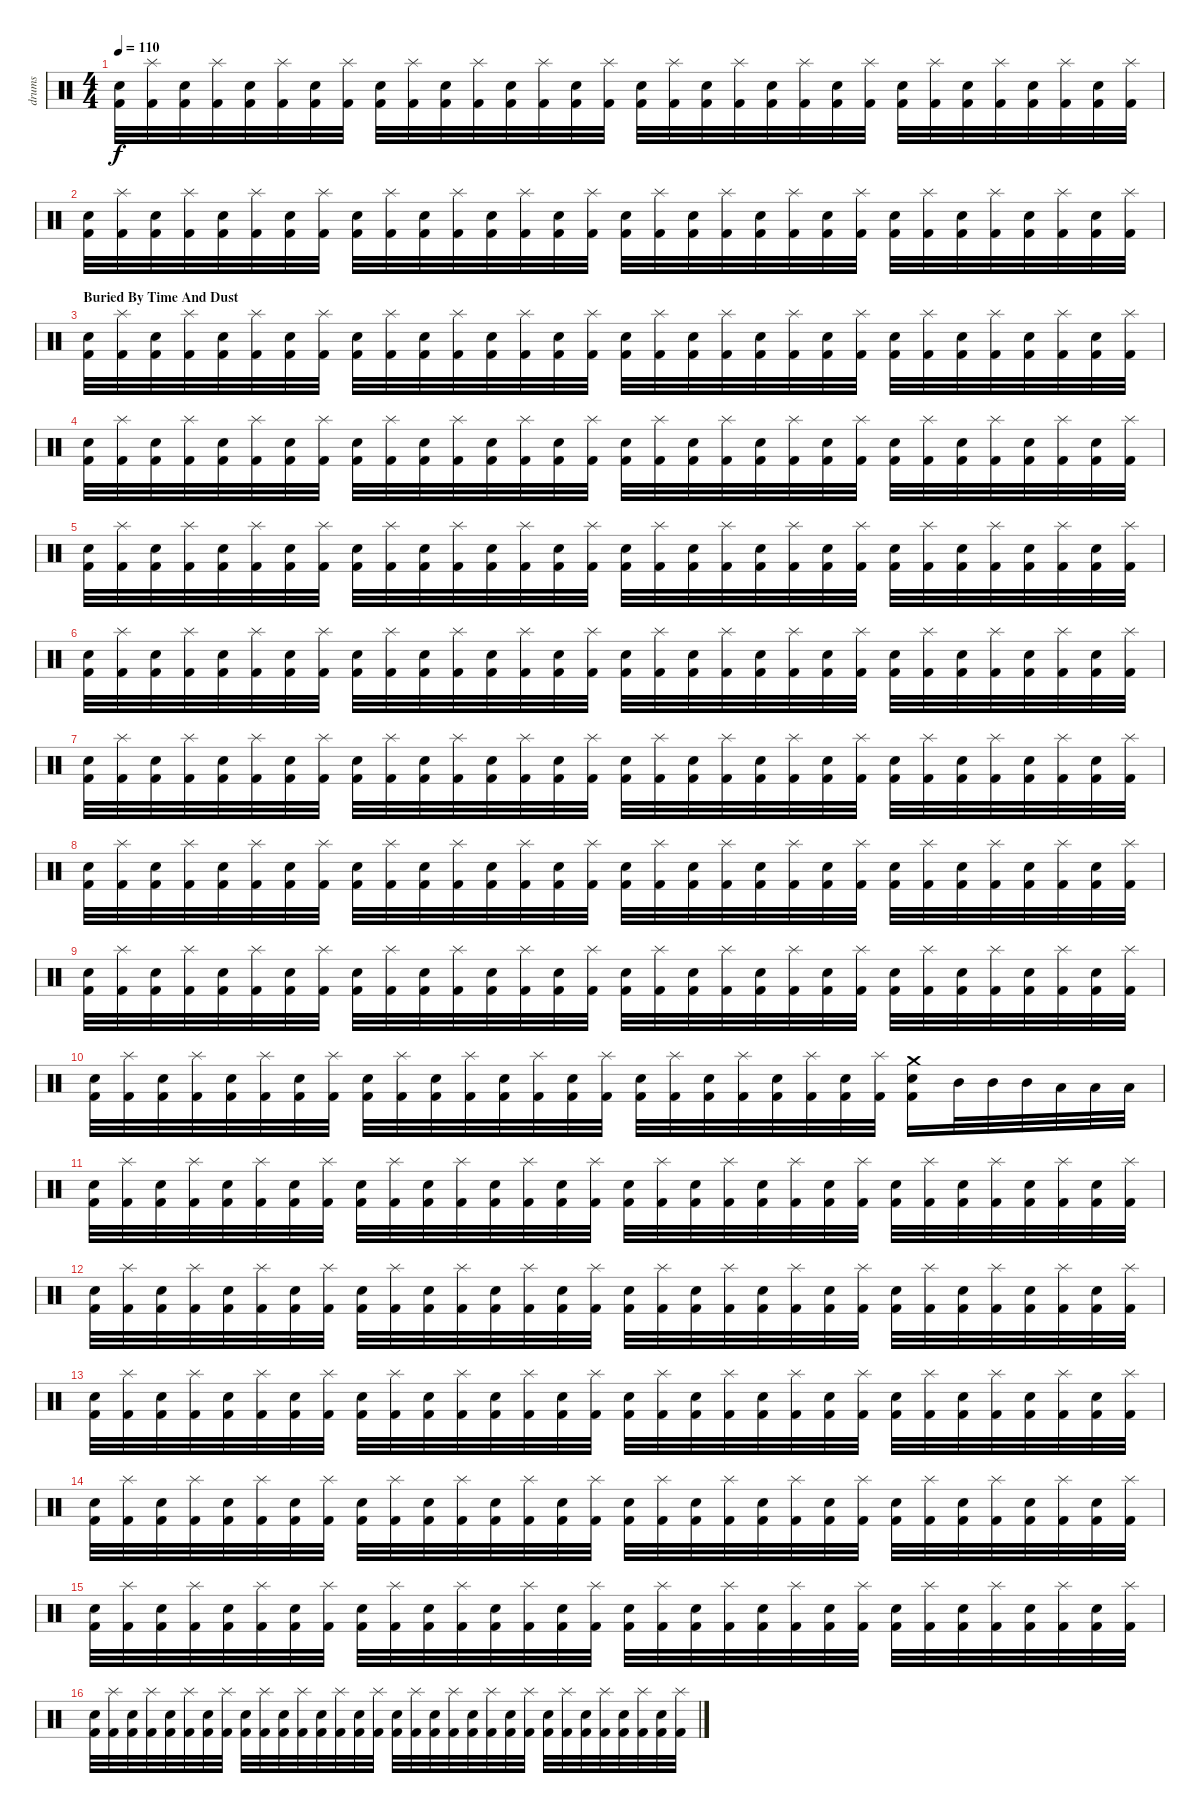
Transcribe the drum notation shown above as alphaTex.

\track ("drums" "drums") {instrument percussion}
\staff {score}
\articulation defaults
\ts (4 4)
\tempo 110
\clef neutral
\ks c
("Electric Snare (hit)" "Kick (hit) 2").32{dy f} ("Splash (hit)" "Kick (hit) 2").32 ("Electric Snare (hit)" "Kick (hit) 2").32 ("Splash (hit)" "Kick (hit) 2").32 ("Electric Snare (hit)" "Kick (hit) 2").32 ("Splash (hit)" "Kick (hit) 2").32 ("Electric Snare (hit)" "Kick (hit) 2").32 ("Splash (hit)" "Kick (hit) 2").32 ("Electric Snare (hit)" "Kick (hit) 2").32 ("Splash (hit)" "Kick (hit) 2").32 ("Electric Snare (hit)" "Kick (hit) 2").32 ("Splash (hit)" "Kick (hit) 2").32 ("Electric Snare (hit)" "Kick (hit) 2").32 ("Splash (hit)" "Kick (hit) 2").32 ("Electric Snare (hit)" "Kick (hit) 2").32 ("Splash (hit)" "Kick (hit) 2").32 ("Electric Snare (hit)" "Kick (hit) 2").32 ("Splash (hit)" "Kick (hit) 2").32 ("Electric Snare (hit)" "Kick (hit) 2").32 ("Splash (hit)" "Kick (hit) 2").32 ("Electric Snare (hit)" "Kick (hit) 2").32 ("Splash (hit)" "Kick (hit) 2").32 ("Electric Snare (hit)" "Kick (hit) 2").32 ("Splash (hit)" "Kick (hit) 2").32 ("Electric Snare (hit)" "Kick (hit) 2").32 ("Splash (hit)" "Kick (hit) 2").32 ("Electric Snare (hit)" "Kick (hit) 2").32 ("Splash (hit)" "Kick (hit) 2").32 ("Electric Snare (hit)" "Kick (hit) 2").32 ("Splash (hit)" "Kick (hit) 2").32 ("Electric Snare (hit)" "Kick (hit) 2").32 ("Splash (hit)" "Kick (hit) 2").32 |
("Electric Snare (hit)" "Kick (hit) 2").32 ("Splash (hit)" "Kick (hit) 2").32 ("Electric Snare (hit)" "Kick (hit) 2").32 ("Splash (hit)" "Kick (hit) 2").32 ("Electric Snare (hit)" "Kick (hit) 2").32 ("Splash (hit)" "Kick (hit) 2").32 ("Electric Snare (hit)" "Kick (hit) 2").32 ("Splash (hit)" "Kick (hit) 2").32 ("Electric Snare (hit)" "Kick (hit) 2").32 ("Splash (hit)" "Kick (hit) 2").32 ("Electric Snare (hit)" "Kick (hit) 2").32 ("Splash (hit)" "Kick (hit) 2").32 ("Electric Snare (hit)" "Kick (hit) 2").32 ("Splash (hit)" "Kick (hit) 2").32 ("Electric Snare (hit)" "Kick (hit) 2").32 ("Splash (hit)" "Kick (hit) 2").32 ("Electric Snare (hit)" "Kick (hit) 2").32 ("Splash (hit)" "Kick (hit) 2").32 ("Electric Snare (hit)" "Kick (hit) 2").32 ("Splash (hit)" "Kick (hit) 2").32 ("Electric Snare (hit)" "Kick (hit) 2").32 ("Splash (hit)" "Kick (hit) 2").32 ("Electric Snare (hit)" "Kick (hit) 2").32 ("Splash (hit)" "Kick (hit) 2").32 ("Electric Snare (hit)" "Kick (hit) 2").32 ("Splash (hit)" "Kick (hit) 2").32 ("Electric Snare (hit)" "Kick (hit) 2").32 ("Splash (hit)" "Kick (hit) 2").32 ("Electric Snare (hit)" "Kick (hit) 2").32 ("Splash (hit)" "Kick (hit) 2").32 ("Electric Snare (hit)" "Kick (hit) 2").32 ("Splash (hit)" "Kick (hit) 2").32 |
\section ("" "Buried By Time And Dust")
("Electric Snare (hit)" "Kick (hit) 2").32 ("Splash (hit)" "Kick (hit) 2").32 ("Electric Snare (hit)" "Kick (hit) 2").32 ("Splash (hit)" "Kick (hit) 2").32 ("Electric Snare (hit)" "Kick (hit) 2").32 ("Splash (hit)" "Kick (hit) 2").32 ("Electric Snare (hit)" "Kick (hit) 2").32 ("Splash (hit)" "Kick (hit) 2").32 ("Electric Snare (hit)" "Kick (hit) 2").32 ("Splash (hit)" "Kick (hit) 2").32 ("Electric Snare (hit)" "Kick (hit) 2").32 ("Splash (hit)" "Kick (hit) 2").32 ("Electric Snare (hit)" "Kick (hit) 2").32 ("Splash (hit)" "Kick (hit) 2").32 ("Electric Snare (hit)" "Kick (hit) 2").32 ("Splash (hit)" "Kick (hit) 2").32 ("Electric Snare (hit)" "Kick (hit) 2").32 ("Splash (hit)" "Kick (hit) 2").32 ("Electric Snare (hit)" "Kick (hit) 2").32 ("Splash (hit)" "Kick (hit) 2").32 ("Electric Snare (hit)" "Kick (hit) 2").32 ("Splash (hit)" "Kick (hit) 2").32 ("Electric Snare (hit)" "Kick (hit) 2").32 ("Splash (hit)" "Kick (hit) 2").32 ("Electric Snare (hit)" "Kick (hit) 2").32 ("Splash (hit)" "Kick (hit) 2").32 ("Electric Snare (hit)" "Kick (hit) 2").32 ("Splash (hit)" "Kick (hit) 2").32 ("Electric Snare (hit)" "Kick (hit) 2").32 ("Splash (hit)" "Kick (hit) 2").32 ("Electric Snare (hit)" "Kick (hit) 2").32 ("Splash (hit)" "Kick (hit) 2").32 |
("Electric Snare (hit)" "Kick (hit) 2").32 ("Splash (hit)" "Kick (hit) 2").32 ("Electric Snare (hit)" "Kick (hit) 2").32 ("Splash (hit)" "Kick (hit) 2").32 ("Electric Snare (hit)" "Kick (hit) 2").32 ("Splash (hit)" "Kick (hit) 2").32 ("Electric Snare (hit)" "Kick (hit) 2").32 ("Splash (hit)" "Kick (hit) 2").32 ("Electric Snare (hit)" "Kick (hit) 2").32 ("Splash (hit)" "Kick (hit) 2").32 ("Electric Snare (hit)" "Kick (hit) 2").32 ("Splash (hit)" "Kick (hit) 2").32 ("Electric Snare (hit)" "Kick (hit) 2").32 ("Splash (hit)" "Kick (hit) 2").32 ("Electric Snare (hit)" "Kick (hit) 2").32 ("Splash (hit)" "Kick (hit) 2").32 ("Electric Snare (hit)" "Kick (hit) 2").32 ("Splash (hit)" "Kick (hit) 2").32 ("Electric Snare (hit)" "Kick (hit) 2").32 ("Splash (hit)" "Kick (hit) 2").32 ("Electric Snare (hit)" "Kick (hit) 2").32 ("Splash (hit)" "Kick (hit) 2").32 ("Electric Snare (hit)" "Kick (hit) 2").32 ("Splash (hit)" "Kick (hit) 2").32 ("Electric Snare (hit)" "Kick (hit) 2").32 ("Splash (hit)" "Kick (hit) 2").32 ("Electric Snare (hit)" "Kick (hit) 2").32 ("Splash (hit)" "Kick (hit) 2").32 ("Electric Snare (hit)" "Kick (hit) 2").32 ("Splash (hit)" "Kick (hit) 2").32 ("Electric Snare (hit)" "Kick (hit) 2").32 ("Splash (hit)" "Kick (hit) 2").32 |
("Electric Snare (hit)" "Kick (hit) 2").32 ("Splash (hit)" "Kick (hit) 2").32 ("Electric Snare (hit)" "Kick (hit) 2").32 ("Splash (hit)" "Kick (hit) 2").32 ("Electric Snare (hit)" "Kick (hit) 2").32 ("Splash (hit)" "Kick (hit) 2").32 ("Electric Snare (hit)" "Kick (hit) 2").32 ("Splash (hit)" "Kick (hit) 2").32 ("Electric Snare (hit)" "Kick (hit) 2").32 ("Splash (hit)" "Kick (hit) 2").32 ("Electric Snare (hit)" "Kick (hit) 2").32 ("Splash (hit)" "Kick (hit) 2").32 ("Electric Snare (hit)" "Kick (hit) 2").32 ("Splash (hit)" "Kick (hit) 2").32 ("Electric Snare (hit)" "Kick (hit) 2").32 ("Splash (hit)" "Kick (hit) 2").32 ("Electric Snare (hit)" "Kick (hit) 2").32 ("Splash (hit)" "Kick (hit) 2").32 ("Electric Snare (hit)" "Kick (hit) 2").32 ("Splash (hit)" "Kick (hit) 2").32 ("Electric Snare (hit)" "Kick (hit) 2").32 ("Splash (hit)" "Kick (hit) 2").32 ("Electric Snare (hit)" "Kick (hit) 2").32 ("Splash (hit)" "Kick (hit) 2").32 ("Electric Snare (hit)" "Kick (hit) 2").32 ("Splash (hit)" "Kick (hit) 2").32 ("Electric Snare (hit)" "Kick (hit) 2").32 ("Splash (hit)" "Kick (hit) 2").32 ("Electric Snare (hit)" "Kick (hit) 2").32 ("Splash (hit)" "Kick (hit) 2").32 ("Electric Snare (hit)" "Kick (hit) 2").32 ("Splash (hit)" "Kick (hit) 2").32 |
("Electric Snare (hit)" "Kick (hit) 2").32 ("Splash (hit)" "Kick (hit) 2").32 ("Electric Snare (hit)" "Kick (hit) 2").32 ("Splash (hit)" "Kick (hit) 2").32 ("Electric Snare (hit)" "Kick (hit) 2").32 ("Splash (hit)" "Kick (hit) 2").32 ("Electric Snare (hit)" "Kick (hit) 2").32 ("Splash (hit)" "Kick (hit) 2").32 ("Electric Snare (hit)" "Kick (hit) 2").32 ("Splash (hit)" "Kick (hit) 2").32 ("Electric Snare (hit)" "Kick (hit) 2").32 ("Splash (hit)" "Kick (hit) 2").32 ("Electric Snare (hit)" "Kick (hit) 2").32 ("Splash (hit)" "Kick (hit) 2").32 ("Electric Snare (hit)" "Kick (hit) 2").32 ("Splash (hit)" "Kick (hit) 2").32 ("Electric Snare (hit)" "Kick (hit) 2").32 ("Splash (hit)" "Kick (hit) 2").32 ("Electric Snare (hit)" "Kick (hit) 2").32 ("Splash (hit)" "Kick (hit) 2").32 ("Electric Snare (hit)" "Kick (hit) 2").32 ("Splash (hit)" "Kick (hit) 2").32 ("Electric Snare (hit)" "Kick (hit) 2").32 ("Splash (hit)" "Kick (hit) 2").32 ("Electric Snare (hit)" "Kick (hit) 2").32 ("Splash (hit)" "Kick (hit) 2").32 ("Electric Snare (hit)" "Kick (hit) 2").32 ("Splash (hit)" "Kick (hit) 2").32 ("Electric Snare (hit)" "Kick (hit) 2").32 ("Splash (hit)" "Kick (hit) 2").32 ("Electric Snare (hit)" "Kick (hit) 2").32 ("Splash (hit)" "Kick (hit) 2").32 |
("Electric Snare (hit)" "Kick (hit) 2").32 ("Splash (hit)" "Kick (hit) 2").32 ("Electric Snare (hit)" "Kick (hit) 2").32 ("Splash (hit)" "Kick (hit) 2").32 ("Electric Snare (hit)" "Kick (hit) 2").32 ("Splash (hit)" "Kick (hit) 2").32 ("Electric Snare (hit)" "Kick (hit) 2").32 ("Splash (hit)" "Kick (hit) 2").32 ("Electric Snare (hit)" "Kick (hit) 2").32 ("Splash (hit)" "Kick (hit) 2").32 ("Electric Snare (hit)" "Kick (hit) 2").32 ("Splash (hit)" "Kick (hit) 2").32 ("Electric Snare (hit)" "Kick (hit) 2").32 ("Splash (hit)" "Kick (hit) 2").32 ("Electric Snare (hit)" "Kick (hit) 2").32 ("Splash (hit)" "Kick (hit) 2").32 ("Electric Snare (hit)" "Kick (hit) 2").32 ("Splash (hit)" "Kick (hit) 2").32 ("Electric Snare (hit)" "Kick (hit) 2").32 ("Splash (hit)" "Kick (hit) 2").32 ("Electric Snare (hit)" "Kick (hit) 2").32 ("Splash (hit)" "Kick (hit) 2").32 ("Electric Snare (hit)" "Kick (hit) 2").32 ("Splash (hit)" "Kick (hit) 2").32 ("Electric Snare (hit)" "Kick (hit) 2").32 ("Splash (hit)" "Kick (hit) 2").32 ("Electric Snare (hit)" "Kick (hit) 2").32 ("Splash (hit)" "Kick (hit) 2").32 ("Electric Snare (hit)" "Kick (hit) 2").32 ("Splash (hit)" "Kick (hit) 2").32 ("Electric Snare (hit)" "Kick (hit) 2").32 ("Splash (hit)" "Kick (hit) 2").32 |
("Electric Snare (hit)" "Kick (hit) 2").32 ("Splash (hit)" "Kick (hit) 2").32 ("Electric Snare (hit)" "Kick (hit) 2").32 ("Splash (hit)" "Kick (hit) 2").32 ("Electric Snare (hit)" "Kick (hit) 2").32 ("Splash (hit)" "Kick (hit) 2").32 ("Electric Snare (hit)" "Kick (hit) 2").32 ("Splash (hit)" "Kick (hit) 2").32 ("Electric Snare (hit)" "Kick (hit) 2").32 ("Splash (hit)" "Kick (hit) 2").32 ("Electric Snare (hit)" "Kick (hit) 2").32 ("Splash (hit)" "Kick (hit) 2").32 ("Electric Snare (hit)" "Kick (hit) 2").32 ("Splash (hit)" "Kick (hit) 2").32 ("Electric Snare (hit)" "Kick (hit) 2").32 ("Splash (hit)" "Kick (hit) 2").32 ("Electric Snare (hit)" "Kick (hit) 2").32 ("Splash (hit)" "Kick (hit) 2").32 ("Electric Snare (hit)" "Kick (hit) 2").32 ("Splash (hit)" "Kick (hit) 2").32 ("Electric Snare (hit)" "Kick (hit) 2").32 ("Splash (hit)" "Kick (hit) 2").32 ("Electric Snare (hit)" "Kick (hit) 2").32 ("Splash (hit)" "Kick (hit) 2").32 ("Electric Snare (hit)" "Kick (hit) 2").32 ("Splash (hit)" "Kick (hit) 2").32 ("Electric Snare (hit)" "Kick (hit) 2").32 ("Splash (hit)" "Kick (hit) 2").32 ("Electric Snare (hit)" "Kick (hit) 2").32 ("Splash (hit)" "Kick (hit) 2").32 ("Electric Snare (hit)" "Kick (hit) 2").32 ("Splash (hit)" "Kick (hit) 2").32 |
("Electric Snare (hit)" "Kick (hit) 2").32 ("Splash (hit)" "Kick (hit) 2").32 ("Electric Snare (hit)" "Kick (hit) 2").32 ("Splash (hit)" "Kick (hit) 2").32 ("Electric Snare (hit)" "Kick (hit) 2").32 ("Splash (hit)" "Kick (hit) 2").32 ("Electric Snare (hit)" "Kick (hit) 2").32 ("Splash (hit)" "Kick (hit) 2").32 ("Electric Snare (hit)" "Kick (hit) 2").32 ("Splash (hit)" "Kick (hit) 2").32 ("Electric Snare (hit)" "Kick (hit) 2").32 ("Splash (hit)" "Kick (hit) 2").32 ("Electric Snare (hit)" "Kick (hit) 2").32 ("Splash (hit)" "Kick (hit) 2").32 ("Electric Snare (hit)" "Kick (hit) 2").32 ("Splash (hit)" "Kick (hit) 2").32 ("Electric Snare (hit)" "Kick (hit) 2").32 ("Splash (hit)" "Kick (hit) 2").32 ("Electric Snare (hit)" "Kick (hit) 2").32 ("Splash (hit)" "Kick (hit) 2").32 ("Electric Snare (hit)" "Kick (hit) 2").32 ("Splash (hit)" "Kick (hit) 2").32 ("Electric Snare (hit)" "Kick (hit) 2").32 ("Splash (hit)" "Kick (hit) 2").32 ("Electric Snare (hit)" "Kick (hit) 2").32 ("Splash (hit)" "Kick (hit) 2").32 ("Electric Snare (hit)" "Kick (hit) 2").32 ("Splash (hit)" "Kick (hit) 2").32 ("Electric Snare (hit)" "Kick (hit) 2").32 ("Splash (hit)" "Kick (hit) 2").32 ("Electric Snare (hit)" "Kick (hit) 2").32 ("Splash (hit)" "Kick (hit) 2").32 |
("Electric Snare (hit)" "Kick (hit) 2").32 ("Splash (hit)" "Kick (hit) 2").32 ("Electric Snare (hit)" "Kick (hit) 2").32 ("Splash (hit)" "Kick (hit) 2").32 ("Electric Snare (hit)" "Kick (hit) 2").32 ("Splash (hit)" "Kick (hit) 2").32 ("Electric Snare (hit)" "Kick (hit) 2").32 ("Splash (hit)" "Kick (hit) 2").32 ("Electric Snare (hit)" "Kick (hit) 2").32 ("Splash (hit)" "Kick (hit) 2").32 ("Electric Snare (hit)" "Kick (hit) 2").32 ("Splash (hit)" "Kick (hit) 2").32 ("Electric Snare (hit)" "Kick (hit) 2").32 ("Splash (hit)" "Kick (hit) 2").32 ("Electric Snare (hit)" "Kick (hit) 2").32 ("Splash (hit)" "Kick (hit) 2").32 ("Electric Snare (hit)" "Kick (hit) 2").32 ("Splash (hit)" "Kick (hit) 2").32 ("Electric Snare (hit)" "Kick (hit) 2").32 ("Splash (hit)" "Kick (hit) 2").32 ("Electric Snare (hit)" "Kick (hit) 2").32 ("Splash (hit)" "Kick (hit) 2").32 ("Electric Snare (hit)" "Kick (hit) 2").32 ("Splash (hit)" "Kick (hit) 2").32 ("Crash medium (hit)" "Electric Snare (hit)" "Kick (hit) 2").16 "Mid Tom (hit)".32 "Mid Tom (hit)".32 "Mid Tom (hit)".32 "Low Tom (hit)".32 "Low Tom (hit)".32 "Low Tom (hit)".32 |
("Electric Snare (hit)" "Kick (hit) 2").32 ("Splash (hit)" "Kick (hit) 2").32 ("Electric Snare (hit)" "Kick (hit) 2").32 ("Splash (hit)" "Kick (hit) 2").32 ("Electric Snare (hit)" "Kick (hit) 2").32 ("Splash (hit)" "Kick (hit) 2").32 ("Electric Snare (hit)" "Kick (hit) 2").32 ("Splash (hit)" "Kick (hit) 2").32 ("Electric Snare (hit)" "Kick (hit) 2").32 ("Splash (hit)" "Kick (hit) 2").32 ("Electric Snare (hit)" "Kick (hit) 2").32 ("Splash (hit)" "Kick (hit) 2").32 ("Electric Snare (hit)" "Kick (hit) 2").32 ("Splash (hit)" "Kick (hit) 2").32 ("Electric Snare (hit)" "Kick (hit) 2").32 ("Splash (hit)" "Kick (hit) 2").32 ("Electric Snare (hit)" "Kick (hit) 2").32 ("Splash (hit)" "Kick (hit) 2").32 ("Electric Snare (hit)" "Kick (hit) 2").32 ("Splash (hit)" "Kick (hit) 2").32 ("Electric Snare (hit)" "Kick (hit) 2").32 ("Splash (hit)" "Kick (hit) 2").32 ("Electric Snare (hit)" "Kick (hit) 2").32 ("Splash (hit)" "Kick (hit) 2").32 ("Electric Snare (hit)" "Kick (hit) 2").32 ("Splash (hit)" "Kick (hit) 2").32 ("Electric Snare (hit)" "Kick (hit) 2").32 ("Splash (hit)" "Kick (hit) 2").32 ("Electric Snare (hit)" "Kick (hit) 2").32 ("Splash (hit)" "Kick (hit) 2").32 ("Electric Snare (hit)" "Kick (hit) 2").32 ("Splash (hit)" "Kick (hit) 2").32 |
("Electric Snare (hit)" "Kick (hit) 2").32 ("Splash (hit)" "Kick (hit) 2").32 ("Electric Snare (hit)" "Kick (hit) 2").32 ("Splash (hit)" "Kick (hit) 2").32 ("Electric Snare (hit)" "Kick (hit) 2").32 ("Splash (hit)" "Kick (hit) 2").32 ("Electric Snare (hit)" "Kick (hit) 2").32 ("Splash (hit)" "Kick (hit) 2").32 ("Electric Snare (hit)" "Kick (hit) 2").32 ("Splash (hit)" "Kick (hit) 2").32 ("Electric Snare (hit)" "Kick (hit) 2").32 ("Splash (hit)" "Kick (hit) 2").32 ("Electric Snare (hit)" "Kick (hit) 2").32 ("Splash (hit)" "Kick (hit) 2").32 ("Electric Snare (hit)" "Kick (hit) 2").32 ("Splash (hit)" "Kick (hit) 2").32 ("Electric Snare (hit)" "Kick (hit) 2").32 ("Splash (hit)" "Kick (hit) 2").32 ("Electric Snare (hit)" "Kick (hit) 2").32 ("Splash (hit)" "Kick (hit) 2").32 ("Electric Snare (hit)" "Kick (hit) 2").32 ("Splash (hit)" "Kick (hit) 2").32 ("Electric Snare (hit)" "Kick (hit) 2").32 ("Splash (hit)" "Kick (hit) 2").32 ("Electric Snare (hit)" "Kick (hit) 2").32 ("Splash (hit)" "Kick (hit) 2").32 ("Electric Snare (hit)" "Kick (hit) 2").32 ("Splash (hit)" "Kick (hit) 2").32 ("Electric Snare (hit)" "Kick (hit) 2").32 ("Splash (hit)" "Kick (hit) 2").32 ("Electric Snare (hit)" "Kick (hit) 2").32 ("Splash (hit)" "Kick (hit) 2").32 |
("Electric Snare (hit)" "Kick (hit) 2").32 ("Splash (hit)" "Kick (hit) 2").32 ("Electric Snare (hit)" "Kick (hit) 2").32 ("Splash (hit)" "Kick (hit) 2").32 ("Electric Snare (hit)" "Kick (hit) 2").32 ("Splash (hit)" "Kick (hit) 2").32 ("Electric Snare (hit)" "Kick (hit) 2").32 ("Splash (hit)" "Kick (hit) 2").32 ("Electric Snare (hit)" "Kick (hit) 2").32 ("Splash (hit)" "Kick (hit) 2").32 ("Electric Snare (hit)" "Kick (hit) 2").32 ("Splash (hit)" "Kick (hit) 2").32 ("Electric Snare (hit)" "Kick (hit) 2").32 ("Splash (hit)" "Kick (hit) 2").32 ("Electric Snare (hit)" "Kick (hit) 2").32 ("Splash (hit)" "Kick (hit) 2").32 ("Electric Snare (hit)" "Kick (hit) 2").32 ("Splash (hit)" "Kick (hit) 2").32 ("Electric Snare (hit)" "Kick (hit) 2").32 ("Splash (hit)" "Kick (hit) 2").32 ("Electric Snare (hit)" "Kick (hit) 2").32 ("Splash (hit)" "Kick (hit) 2").32 ("Electric Snare (hit)" "Kick (hit) 2").32 ("Splash (hit)" "Kick (hit) 2").32 ("Electric Snare (hit)" "Kick (hit) 2").32 ("Splash (hit)" "Kick (hit) 2").32 ("Electric Snare (hit)" "Kick (hit) 2").32 ("Splash (hit)" "Kick (hit) 2").32 ("Electric Snare (hit)" "Kick (hit) 2").32 ("Splash (hit)" "Kick (hit) 2").32 ("Electric Snare (hit)" "Kick (hit) 2").32 ("Splash (hit)" "Kick (hit) 2").32 |
("Electric Snare (hit)" "Kick (hit) 2").32 ("Splash (hit)" "Kick (hit) 2").32 ("Electric Snare (hit)" "Kick (hit) 2").32 ("Splash (hit)" "Kick (hit) 2").32 ("Electric Snare (hit)" "Kick (hit) 2").32 ("Splash (hit)" "Kick (hit) 2").32 ("Electric Snare (hit)" "Kick (hit) 2").32 ("Splash (hit)" "Kick (hit) 2").32 ("Electric Snare (hit)" "Kick (hit) 2").32 ("Splash (hit)" "Kick (hit) 2").32 ("Electric Snare (hit)" "Kick (hit) 2").32 ("Splash (hit)" "Kick (hit) 2").32 ("Electric Snare (hit)" "Kick (hit) 2").32 ("Splash (hit)" "Kick (hit) 2").32 ("Electric Snare (hit)" "Kick (hit) 2").32 ("Splash (hit)" "Kick (hit) 2").32 ("Electric Snare (hit)" "Kick (hit) 2").32 ("Splash (hit)" "Kick (hit) 2").32 ("Electric Snare (hit)" "Kick (hit) 2").32 ("Splash (hit)" "Kick (hit) 2").32 ("Electric Snare (hit)" "Kick (hit) 2").32 ("Splash (hit)" "Kick (hit) 2").32 ("Electric Snare (hit)" "Kick (hit) 2").32 ("Splash (hit)" "Kick (hit) 2").32 ("Electric Snare (hit)" "Kick (hit) 2").32 ("Splash (hit)" "Kick (hit) 2").32 ("Electric Snare (hit)" "Kick (hit) 2").32 ("Splash (hit)" "Kick (hit) 2").32 ("Electric Snare (hit)" "Kick (hit) 2").32 ("Splash (hit)" "Kick (hit) 2").32 ("Electric Snare (hit)" "Kick (hit) 2").32 ("Splash (hit)" "Kick (hit) 2").32 |
("Electric Snare (hit)" "Kick (hit) 2").32 ("Splash (hit)" "Kick (hit) 2").32 ("Electric Snare (hit)" "Kick (hit) 2").32 ("Splash (hit)" "Kick (hit) 2").32 ("Electric Snare (hit)" "Kick (hit) 2").32 ("Splash (hit)" "Kick (hit) 2").32 ("Electric Snare (hit)" "Kick (hit) 2").32 ("Splash (hit)" "Kick (hit) 2").32 ("Electric Snare (hit)" "Kick (hit) 2").32 ("Splash (hit)" "Kick (hit) 2").32 ("Electric Snare (hit)" "Kick (hit) 2").32 ("Splash (hit)" "Kick (hit) 2").32 ("Electric Snare (hit)" "Kick (hit) 2").32 ("Splash (hit)" "Kick (hit) 2").32 ("Electric Snare (hit)" "Kick (hit) 2").32 ("Splash (hit)" "Kick (hit) 2").32 ("Electric Snare (hit)" "Kick (hit) 2").32 ("Splash (hit)" "Kick (hit) 2").32 ("Electric Snare (hit)" "Kick (hit) 2").32 ("Splash (hit)" "Kick (hit) 2").32 ("Electric Snare (hit)" "Kick (hit) 2").32 ("Splash (hit)" "Kick (hit) 2").32 ("Electric Snare (hit)" "Kick (hit) 2").32 ("Splash (hit)" "Kick (hit) 2").32 ("Electric Snare (hit)" "Kick (hit) 2").32 ("Splash (hit)" "Kick (hit) 2").32 ("Electric Snare (hit)" "Kick (hit) 2").32 ("Splash (hit)" "Kick (hit) 2").32 ("Electric Snare (hit)" "Kick (hit) 2").32 ("Splash (hit)" "Kick (hit) 2").32 ("Electric Snare (hit)" "Kick (hit) 2").32 ("Splash (hit)" "Kick (hit) 2").32 |
("Electric Snare (hit)" "Kick (hit) 2").32 ("Splash (hit)" "Kick (hit) 2").32 ("Electric Snare (hit)" "Kick (hit) 2").32 ("Splash (hit)" "Kick (hit) 2").32 ("Electric Snare (hit)" "Kick (hit) 2").32 ("Splash (hit)" "Kick (hit) 2").32 ("Electric Snare (hit)" "Kick (hit) 2").32 ("Splash (hit)" "Kick (hit) 2").32 ("Electric Snare (hit)" "Kick (hit) 2").32 ("Splash (hit)" "Kick (hit) 2").32 ("Electric Snare (hit)" "Kick (hit) 2").32 ("Splash (hit)" "Kick (hit) 2").32 ("Electric Snare (hit)" "Kick (hit) 2").32 ("Splash (hit)" "Kick (hit) 2").32 ("Electric Snare (hit)" "Kick (hit) 2").32 ("Splash (hit)" "Kick (hit) 2").32 ("Electric Snare (hit)" "Kick (hit) 2").32 ("Splash (hit)" "Kick (hit) 2").32 ("Electric Snare (hit)" "Kick (hit) 2").32 ("Splash (hit)" "Kick (hit) 2").32 ("Electric Snare (hit)" "Kick (hit) 2").32 ("Splash (hit)" "Kick (hit) 2").32 ("Electric Snare (hit)" "Kick (hit) 2").32 ("Splash (hit)" "Kick (hit) 2").32 ("Electric Snare (hit)" "Kick (hit) 2").32 ("Splash (hit)" "Kick (hit) 2").32 ("Electric Snare (hit)" "Kick (hit) 2").32 ("Splash (hit)" "Kick (hit) 2").32 ("Electric Snare (hit)" "Kick (hit) 2").32 ("Splash (hit)" "Kick (hit) 2").32 ("Electric Snare (hit)" "Kick (hit) 2").32 ("Splash (hit)" "Kick (hit) 2").32
